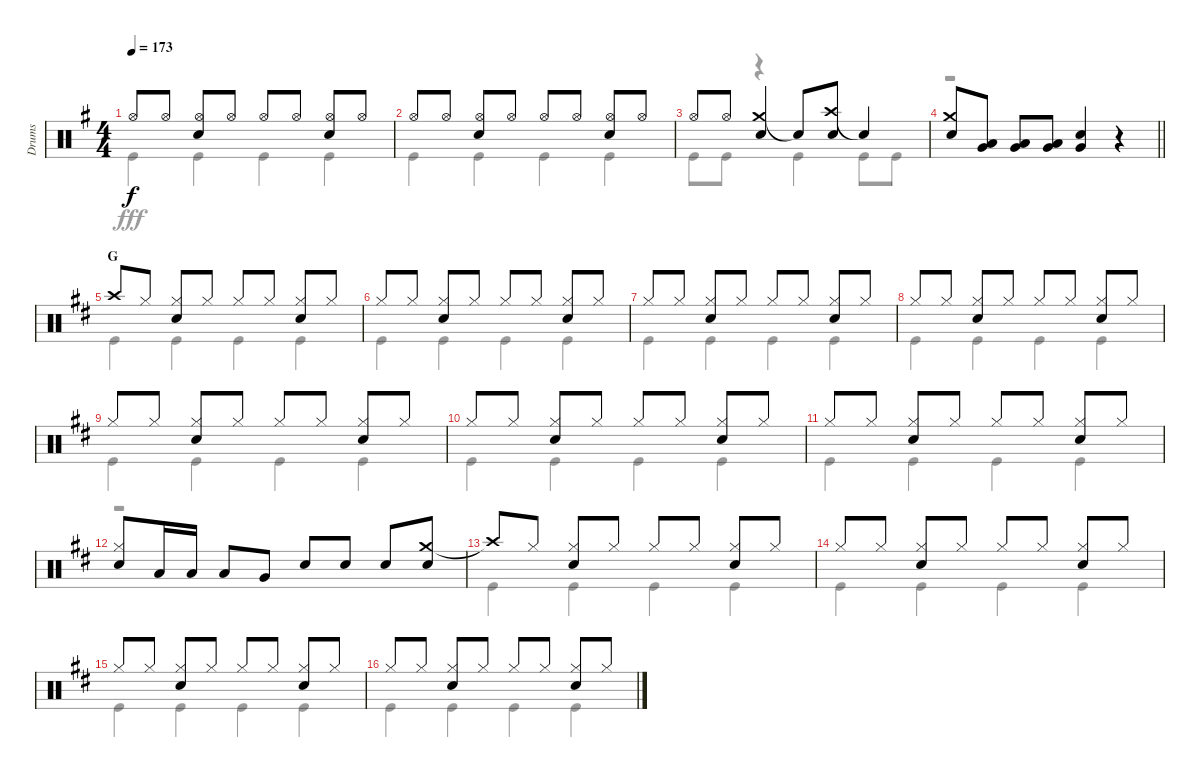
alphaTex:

\track ("Drums" "Drums") {instrument percussion}
\staff {score}
\articulation defaults
\voice
\ts (4 4)
\tempo 173
\clef neutral
\ks g "Hi-Hat (open)".8{dy f} "Hi-Hat (open)".8
("Hi-Hat (open)" "Snare (hit) 2").8 "Hi-Hat (open)".8 "Hi-Hat (open)".8 "Hi-Hat (open)".8 ("Hi-Hat (open)" "Snare (hit) 2").8 "Hi-Hat (open)".8 |
"Hi-Hat (open)".8 "Hi-Hat (open)".8 ("Hi-Hat (open)" "Snare (hit) 2").8 "Hi-Hat (open)".8 "Hi-Hat (open)".8 "Hi-Hat (open)".8 ("Hi-Hat (open)" "Snare (hit) 2").8 "Hi-Hat (open)".8 |
"Hi-Hat (open)".8 "Hi-Hat (open)".8 ("Crash medium (hit)" "Snare (hit) 2").4 "Snare (hit)"{t}.8 ("Crash high (hit)" "Snare (hit) 2").8 "Snare (hit)"{t}.4 |
\barLineRight lightlight
("Crash medium (hit)" "Snare (hit) 2").8 ("Low Tom (hit)" "Very Low Tom (hit)").8 ("Low Tom (hit)" "Very Low Tom (hit)").8 ("Low Tom (hit)" "Very Low Tom (hit)").8 ("Snare (hit) 2" "Very Low Tom (hit)").4 r.4 |
\section ("" "G")
\ks d "Crash high (hit)".8 "Hi-Hat (closed)".8
("Hi-Hat (closed)" "Snare (hit) 2").8 "Hi-Hat (closed)".8 "Hi-Hat (closed)".8 "Hi-Hat (closed)".8 ("Hi-Hat (closed)" "Snare (hit) 2").8 "Hi-Hat (closed)".8 |
"Hi-Hat (closed)".8 "Hi-Hat (closed)".8 ("Hi-Hat (closed)" "Snare (hit) 2").8 "Hi-Hat (closed)".8 "Hi-Hat (closed)".8 "Hi-Hat (closed)".8 ("Hi-Hat (closed)" "Snare (hit) 2").8 "Hi-Hat (closed)".8 |
"Hi-Hat (closed)".8 "Hi-Hat (closed)".8 ("Hi-Hat (closed)" "Snare (hit) 2").8 "Hi-Hat (closed)".8 "Hi-Hat (closed)".8 "Hi-Hat (closed)".8 ("Hi-Hat (closed)" "Snare (hit) 2").8 "Hi-Hat (closed)".8 |
"Hi-Hat (closed)".8 "Hi-Hat (closed)".8 ("Hi-Hat (closed)" "Snare (hit) 2").8 "Hi-Hat (closed)".8 "Hi-Hat (closed)".8 "Hi-Hat (closed)".8 ("Hi-Hat (closed)" "Snare (hit) 2").8 "Hi-Hat (closed)".8 |
"Hi-Hat (closed)".8 "Hi-Hat (closed)".8 ("Hi-Hat (closed)" "Snare (hit) 2").8 "Hi-Hat (closed)".8 "Hi-Hat (closed)".8 "Hi-Hat (closed)".8 ("Hi-Hat (closed)" "Snare (hit) 2").8 "Hi-Hat (closed)".8 |
"Hi-Hat (closed)".8 "Hi-Hat (closed)".8 ("Hi-Hat (closed)" "Snare (hit) 2").8 "Hi-Hat (closed)".8 "Hi-Hat (closed)".8 "Hi-Hat (closed)".8 ("Hi-Hat (closed)" "Snare (hit) 2").8 "Hi-Hat (closed)".8 |
"Hi-Hat (closed)".8 "Hi-Hat (closed)".8 ("Hi-Hat (closed)" "Snare (hit) 2").8 "Hi-Hat (closed)".8 "Hi-Hat (closed)".8 "Hi-Hat (closed)".8 ("Hi-Hat (closed)" "Snare (hit) 2").8 "Hi-Hat (closed)".8 |
("Hi-Hat (closed)" "Snare (hit) 2").8 "Low Tom (hit)".16 "Low Tom (hit)".16 "Low Tom (hit)".8 "Very Low Tom (hit)".8 "Snare (hit) 2".8 "Snare (hit) 2".8 "Snare (hit) 2".8 ("Crash medium (hit)" "Snare (hit) 2").8 |
"Crash high (hit)"{t}.8 "Hi-Hat (closed)".8 ("Hi-Hat (closed)" "Snare (hit) 2").8 "Hi-Hat (closed)".8 "Hi-Hat (closed)".8 "Hi-Hat (closed)".8 ("Hi-Hat (closed)" "Snare (hit) 2").8 "Hi-Hat (closed)".8 |
"Hi-Hat (closed)".8 "Hi-Hat (closed)".8 ("Hi-Hat (closed)" "Snare (hit) 2").8 "Hi-Hat (closed)".8 "Hi-Hat (closed)".8 "Hi-Hat (closed)".8 ("Hi-Hat (closed)" "Snare (hit) 2").8 "Hi-Hat (closed)".8 |
"Hi-Hat (closed)".8 "Hi-Hat (closed)".8 ("Hi-Hat (closed)" "Snare (hit) 2").8 "Hi-Hat (closed)".8 "Hi-Hat (closed)".8 "Hi-Hat (closed)".8 ("Hi-Hat (closed)" "Snare (hit) 2").8 "Hi-Hat (closed)".8 |
"Hi-Hat (closed)".8 "Hi-Hat (closed)".8 ("Hi-Hat (closed)" "Snare (hit) 2").8 "Hi-Hat (closed)".8 "Hi-Hat (closed)".8 "Hi-Hat (closed)".8 ("Hi-Hat (closed)" "Snare (hit) 2").8 "Hi-Hat (closed)".8
\voice
\clef neutral
\ottava regular
\simile none
\ks g "Kick (hit)".4{dy fff} "Kick (hit)".4 "Kick (hit)".4 "Kick (hit)".4
|
"Kick (hit)".4 "Kick (hit)".4 "Kick (hit)".4 "Kick (hit)".4 |
"Kick (hit)".8 "Kick (hit)".8 r.4 "Kick (hit)".4 "Kick (hit)".8 "Kick (hit)".8 |
\barLineRight lightlight
r.1 |
\ks d "Kick (hit)".4 "Kick (hit)".4 "Kick (hit)".4 "Kick (hit)".4
|
"Kick (hit)".4 "Kick (hit)".4 "Kick (hit)".4 "Kick (hit)".4 |
"Kick (hit)".4 "Kick (hit)".4 "Kick (hit)".4 "Kick (hit)".4 |
"Kick (hit)".4 "Kick (hit)".4 "Kick (hit)".4 "Kick (hit)".4 |
"Kick (hit)".4 "Kick (hit)".4 "Kick (hit)".4 "Kick (hit)".4 |
"Kick (hit)".4 "Kick (hit)".4 "Kick (hit)".4 "Kick (hit)".4 |
"Kick (hit)".4 "Kick (hit)".4 "Kick (hit)".4 "Kick (hit)".4 |
r.1 |
"Kick (hit)".4 "Kick (hit)".4 "Kick (hit)".4 "Kick (hit)".4 |
"Kick (hit)".4 "Kick (hit)".4 "Kick (hit)".4 "Kick (hit)".4 |
"Kick (hit)".4 "Kick (hit)".4 "Kick (hit)".4 "Kick (hit)".4 |
"Kick (hit)".4 "Kick (hit)".4 "Kick (hit)".4 "Kick (hit)".4
